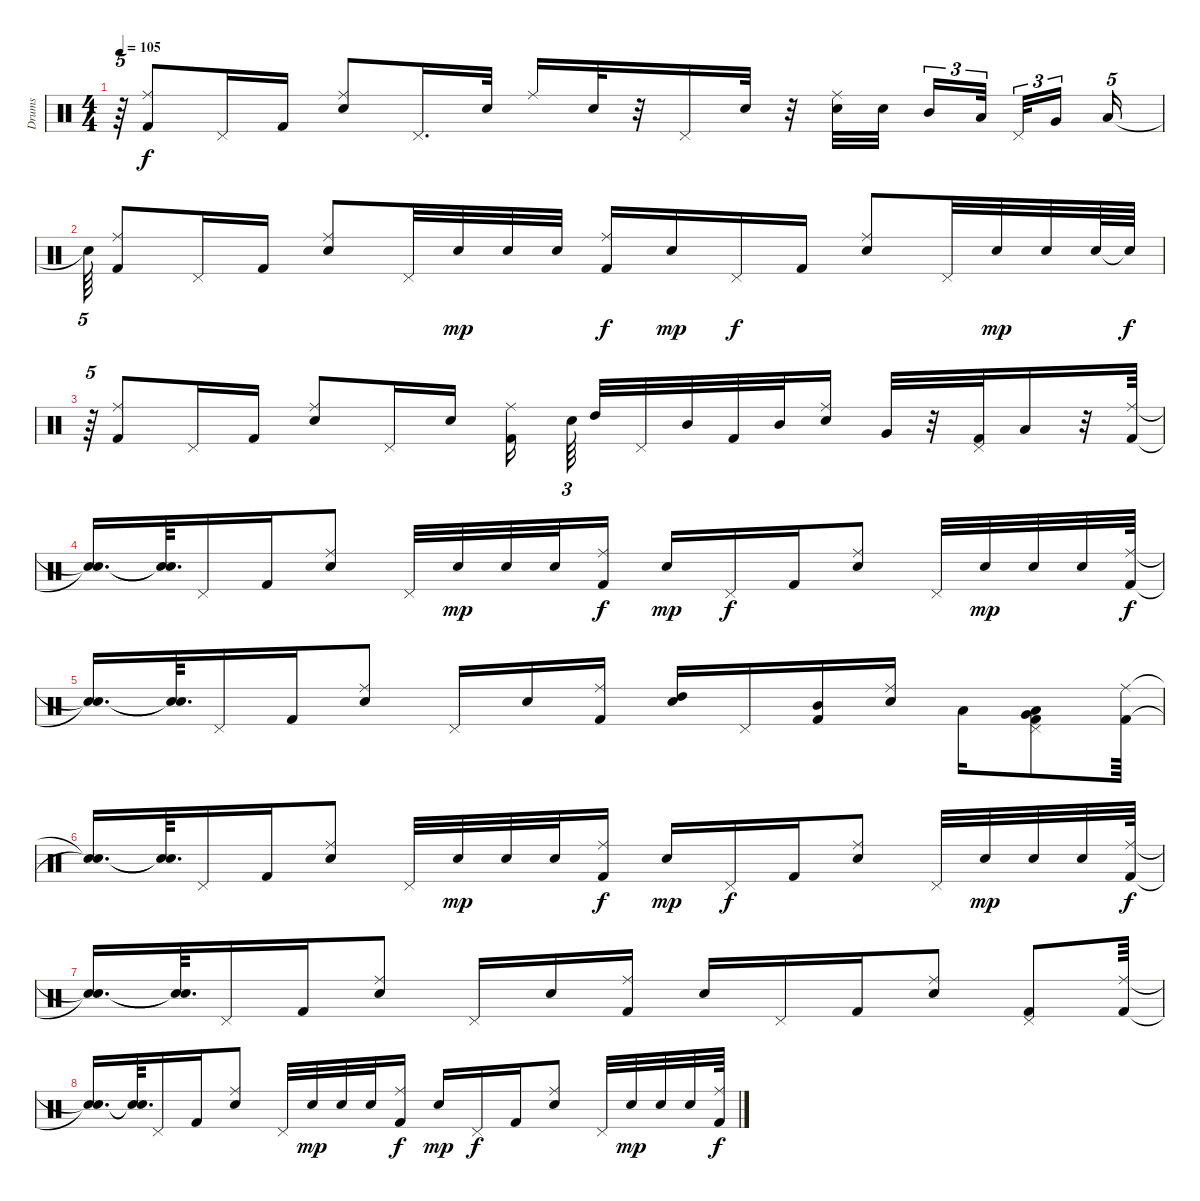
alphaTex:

\track ("Drums" "Drums") {instrument percussion}
\staff {score}
\articulation defaults
\ts (4 4)
\tempo 105
\clef neutral
\ks c
r.64{tu (5 4) dy f} ("Kick (hit) 2" "Ride (middle)").8 "Pedal Hi-Hat (hit)".16 "Kick (hit) 2".16 ("Electric Snare (hit)" "Ride (middle)").8 "Pedal Hi-Hat (hit)".16{d} "Electric Snare (hit)".32 "Ride (middle)".16 "Electric Snare (hit)".32 r.32 "Pedal Hi-Hat (hit)".16 "Electric Snare (hit)".32 r.32 ("Electric Snare (hit)" "Ride (middle)").32 "Electric Snare (hit)".32 "Mid Tom (hit)".16{tu (3 2)} "Low Tom (hit)".32{tu (3 2)} "Pedal Hi-Hat (hit)".32{tu (3 2)} "Very Low Tom (hit)".16{tu (3 2)} "Low Floor Tom (hit)".16{tu (5 4)} |
"Snare (hit)"{t}.64{tu (5 4)} ("Kick (hit) 2" "Ride (middle)").8 "Pedal Hi-Hat (hit)".16 "Kick (hit) 2".16 ("Electric Snare (hit)" "Ride (middle)").8 "Pedal Hi-Hat (hit)".32 "Electric Snare (hit)".32{dy mp} "Electric Snare (hit)".32 "Electric Snare (hit)".32 ("Kick (hit) 2" "Ride (middle)").16{dy f} "Electric Snare (hit)".16{dy mp} "Pedal Hi-Hat (hit)".16{dy f} "Kick (hit) 2".16 ("Electric Snare (hit)" "Ride (middle)").8 "Pedal Hi-Hat (hit)".32 "Electric Snare (hit)".32{dy mp} "Electric Snare (hit)".32 "Electric Snare (hit)".64 "Snare (hit)"{t}.64{dy f} |
r.64{tu (5 4)} ("Kick (hit) 2" "Ride (middle)").8 "Pedal Hi-Hat (hit)".16 "Kick (hit) 2".16 ("Electric Snare (hit)" "Ride (middle)").8 "Pedal Hi-Hat (hit)".16 "Electric Snare (hit)".16 ("Kick (hit) 2" "Ride (middle)").16 "Electric Snare (hit)".64{tu (3 2)} "High Tom (hit)".32 "Pedal Hi-Hat (hit)".32 "Mid Tom (hit)".32 "Kick (hit) 2".32 "Mid Tom (hit)".32 ("Electric Snare (hit)" "Ride (middle)").16 "Very Low Tom (hit)".32 r.32 ("Kick (hit) 2" "Pedal Hi-Hat (hit)").32 "Low Tom (hit)".16 r.32 ("Kick (hit) 2" "Ride (middle)").64 |
("Snare (hit)"{t} "Snare (hit)"{t}).16{d} ("Snare (hit)"{t} "Snare (hit)"{t}).64{d} "Pedal Hi-Hat (hit)".16 "Kick (hit) 2".16 ("Electric Snare (hit)" "Ride (middle)").8 "Pedal Hi-Hat (hit)".32 "Electric Snare (hit)".32{dy mp} "Electric Snare (hit)".32 "Electric Snare (hit)".32 ("Kick (hit) 2" "Ride (middle)").16{dy f} "Electric Snare (hit)".16{dy mp} "Pedal Hi-Hat (hit)".16{dy f} "Kick (hit) 2".16 ("Electric Snare (hit)" "Ride (middle)").8 "Pedal Hi-Hat (hit)".32 "Electric Snare (hit)".32{dy mp} "Electric Snare (hit)".32 "Electric Snare (hit)".32 ("Kick (hit) 2" "Ride (middle)").64{dy f} |
("Snare (hit)"{t} "Snare (hit)"{t}).16{d} ("Snare (hit)"{t} "Snare (hit)"{t}).64{d} "Pedal Hi-Hat (hit)".16 "Kick (hit) 2".16 ("Electric Snare (hit)" "Ride (middle)").8 "Pedal Hi-Hat (hit)".16 "Electric Snare (hit)".16 ("Kick (hit) 2" "Ride (middle)").16 ("High Tom (hit)" "Electric Snare (hit)").16 "Pedal Hi-Hat (hit)".16 ("Mid Tom (hit)" "Kick (hit) 2").16 ("Electric Snare (hit)" "Ride (middle)").16 "Low Tom (hit)".16 ("Very Low Tom (hit)" "Low Floor Tom (hit)" "Kick (hit) 2" "Pedal Hi-Hat (hit)").8 ("Kick (hit) 2" "Ride (middle)").64 |
("Snare (hit)"{t} "Snare (hit)"{t}).16{d} ("Snare (hit)"{t} "Snare (hit)"{t}).64{d} "Pedal Hi-Hat (hit)".16 "Kick (hit) 2".16 ("Electric Snare (hit)" "Ride (middle)").8 "Pedal Hi-Hat (hit)".32 "Electric Snare (hit)".32{dy mp} "Electric Snare (hit)".32 "Electric Snare (hit)".32 ("Kick (hit) 2" "Ride (middle)").16{dy f} "Electric Snare (hit)".16{dy mp} "Pedal Hi-Hat (hit)".16{dy f} "Kick (hit) 2".16 ("Electric Snare (hit)" "Ride (middle)").8 "Pedal Hi-Hat (hit)".32 "Electric Snare (hit)".32{dy mp} "Electric Snare (hit)".32 "Electric Snare (hit)".32 ("Kick (hit) 2" "Ride (middle)").64{dy f} |
("Snare (hit)"{t} "Snare (hit)"{t}).16{d} ("Snare (hit)"{t} "Snare (hit)"{t}).64{d} "Pedal Hi-Hat (hit)".16 "Kick (hit) 2".16 ("Electric Snare (hit)" "Ride (middle)").8 "Pedal Hi-Hat (hit)".16 "Electric Snare (hit)".16 ("Kick (hit) 2" "Ride (middle)").16 "Electric Snare (hit)".16 "Pedal Hi-Hat (hit)".16 "Kick (hit) 2".16 ("Electric Snare (hit)" "Ride (middle)").8 ("Kick (hit) 2" "Pedal Hi-Hat (hit)").8 ("Kick (hit) 2" "Ride (middle)").64 |
("Snare (hit)"{t} "Snare (hit)"{t}).16{d} ("Snare (hit)"{t} "Snare (hit)"{t}).64{d} "Pedal Hi-Hat (hit)".16 "Kick (hit) 2".16 ("Electric Snare (hit)" "Ride (middle)").8 "Pedal Hi-Hat (hit)".32 "Electric Snare (hit)".32{dy mp} "Electric Snare (hit)".32 "Electric Snare (hit)".32 ("Kick (hit) 2" "Ride (middle)").16{dy f} "Electric Snare (hit)".16{dy mp} "Pedal Hi-Hat (hit)".16{dy f} "Kick (hit) 2".16 ("Electric Snare (hit)" "Ride (middle)").8 "Pedal Hi-Hat (hit)".32 "Electric Snare (hit)".32{dy mp} "Electric Snare (hit)".32 "Electric Snare (hit)".32 ("Kick (hit) 2" "Ride (middle)").64{dy f}
